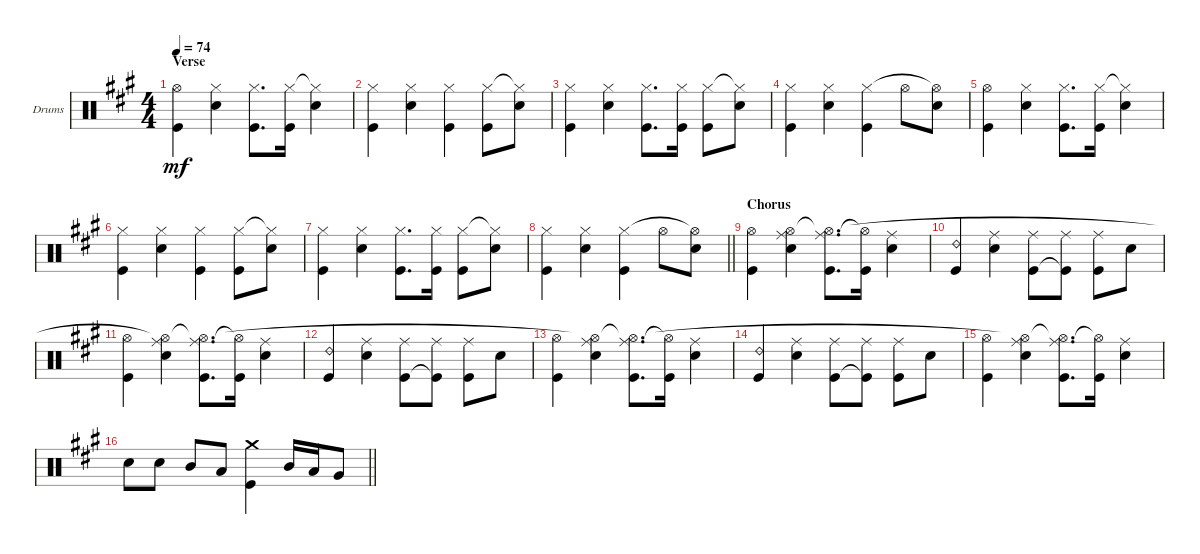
\bracketExtendMode groupsimilarinstruments
\firstSystemTrackNameOrientation horizontal
\otherSystemsTrackNameOrientation horizontal
\track ("Drumkit" "Drums") {instrument percussion}
\staff {score}
\articulation defaults
\ts (4 4)
\section ("" "Verse")
\tempo 74
\clef neutral
\scale
0.333333
\ks a
("Kick (hit)" "Hi-Hat (open)").4{dy mf} ("Snare (hit) 2" "Hi-Hat (closed)").4 ("Kick (hit)" "Hi-Hat (closed)").8{d} ("Kick (hit)" "Hi-Hat (closed)").16 ("Snare (hit) 2" "Hi-Hat (closed)"{t}).4 |
\scale
0.333333 ("Kick (hit)" "Hi-Hat (closed)").4 ("Snare (hit) 2" "Hi-Hat (closed)").4 ("Kick (hit)" "Hi-Hat (closed)").4 ("Kick (hit)" "Hi-Hat (closed)").8 ("Snare (hit) 2" "Hi-Hat (closed)"{t}).8 |
\scale
0.333333 ("Kick (hit)" "Hi-Hat (closed)").4 ("Snare (hit) 2" "Hi-Hat (closed)").4 ("Kick (hit)" "Hi-Hat (closed)").8{d} ("Kick (hit)" "Hi-Hat (closed)").16 ("Kick (hit)" "Hi-Hat (closed)").8 ("Snare (hit) 2" "Hi-Hat (closed)"{t}).8 |
\scale
0.333333 ("Kick (hit)" "Hi-Hat (closed)").4 ("Snare (hit) 2" "Hi-Hat (closed)").4 ("Kick (hit)" "Hi-Hat (closed)").4 "Hi-Hat (open)".8 ("Snare (hit) 2" "Hi-Hat (open)"{t}).8 |
\scale
0.333333 ("Kick (hit)" "Hi-Hat (open)").4 ("Snare (hit) 2" "Hi-Hat (closed)").4 ("Kick (hit)" "Hi-Hat (closed)").8{d} ("Kick (hit)" "Hi-Hat (closed)").16 ("Snare (hit) 2" "Hi-Hat (closed)"{t}).4 |
\scale
0.333333 ("Kick (hit)" "Hi-Hat (closed)").4 ("Snare (hit) 2" "Hi-Hat (closed)").4 ("Kick (hit)" "Hi-Hat (closed)").4 ("Kick (hit)" "Hi-Hat (closed)").8 ("Snare (hit) 2" "Hi-Hat (closed)"{t}).8 |
\scale
0.333333 ("Kick (hit)" "Hi-Hat (closed)").4 ("Snare (hit) 2" "Hi-Hat (closed)").4 ("Kick (hit)" "Hi-Hat (closed)").8{d} ("Kick (hit)" "Hi-Hat (closed)").16 ("Kick (hit)" "Hi-Hat (closed)").8 ("Snare (hit) 2" "Hi-Hat (closed)"{t}).8 |
\scale
0.333333
\barLineRight lightlight
("Kick (hit)" "Hi-Hat (closed)").4 ("Snare (hit) 2" "Hi-Hat (closed)").4 ("Kick (hit)" "Hi-Hat (closed)").4 "Hi-Hat (open)".8 ("Snare (hit) 2" "Hi-Hat (open)"{t}).8 |
\section ("" "Chorus")
\scale
0.333333 ("Kick (hit)" "Hi-Hat (open)").4 ("Snare (hit) 2" "Ride (middle)" "Hi-Hat (open)").4 ("Kick (hit)" "Ride (middle)" "Hi-Hat (open)"{t}).8{d} ("Kick (hit)" "Hi-Hat (open)"{t}).16 ("Snare (hit) 2" "Ride (middle)").4 |
\scale
0.333333 ("Kick (hit)" "Ride (bell) 2").4 ("Snare (hit) 2" "Ride (middle)").4 ("Kick (hit)" "Ride (middle)").8 ("Kick (hit)"{t} "Ride (middle)").8 ("Kick (hit)" "Ride (middle)").8 "Snare (hit) 2".8 |
\scale
0.333333 ("Kick (hit)" "Hi-Hat (open)").4 ("Snare (hit) 2" "Ride (middle)" "Hi-Hat (open)"{t}).4 ("Kick (hit)" "Ride (middle)" "Hi-Hat (open)"{t}).8{d} ("Kick (hit)" "Hi-Hat (open)"{t}).16 ("Snare (hit) 2" "Ride (middle)").4 |
\scale
0.333333 ("Kick (hit)" "Ride (bell) 2").4 ("Snare (hit) 2" "Ride (middle)").4 ("Kick (hit)" "Ride (middle)").8 ("Kick (hit)"{t} "Ride (middle)").8 ("Kick (hit)" "Ride (middle)").8 "Snare (hit) 2".8 |
\scale
0.333333 ("Kick (hit)" "Hi-Hat (open)").4 ("Snare (hit) 2" "Ride (middle)" "Hi-Hat (open)"{t}).4 ("Kick (hit)" "Ride (middle)" "Hi-Hat (open)"{t}).8{d} ("Kick (hit)" "Hi-Hat (open)"{t}).16 ("Snare (hit) 2" "Ride (middle)").4 |
\scale
0.333333 ("Kick (hit)" "Ride (bell) 2").4 ("Snare (hit) 2" "Ride (middle)").4 ("Kick (hit)" "Ride (middle)").8 ("Kick (hit)"{t} "Ride (middle)").8 ("Kick (hit)" "Ride (middle)").8 "Snare (hit) 2".8 |
\scale
0.333333 ("Kick (hit)" "Hi-Hat (open)").4 ("Snare (hit) 2" "Ride (middle)" "Hi-Hat (open)"{t}).4 ("Kick (hit)" "Ride (middle)" "Hi-Hat (open)"{t}).8{d} ("Kick (hit)" "Hi-Hat (open)"{t}).16 ("Snare (hit) 2" "Ride (middle)").4 |
\scale
0.333333
\barLineRight lightlight "Snare (hit) 2".8 "Snare (hit) 2".8 "Mid Tom (hit)".8 "Low Tom (hit)".8
("Kick (hit)" "Crash medium (hit)").4 "Mid Tom (hit)".16 "Low Tom (hit)".16 "Very Low Tom (hit)".8
